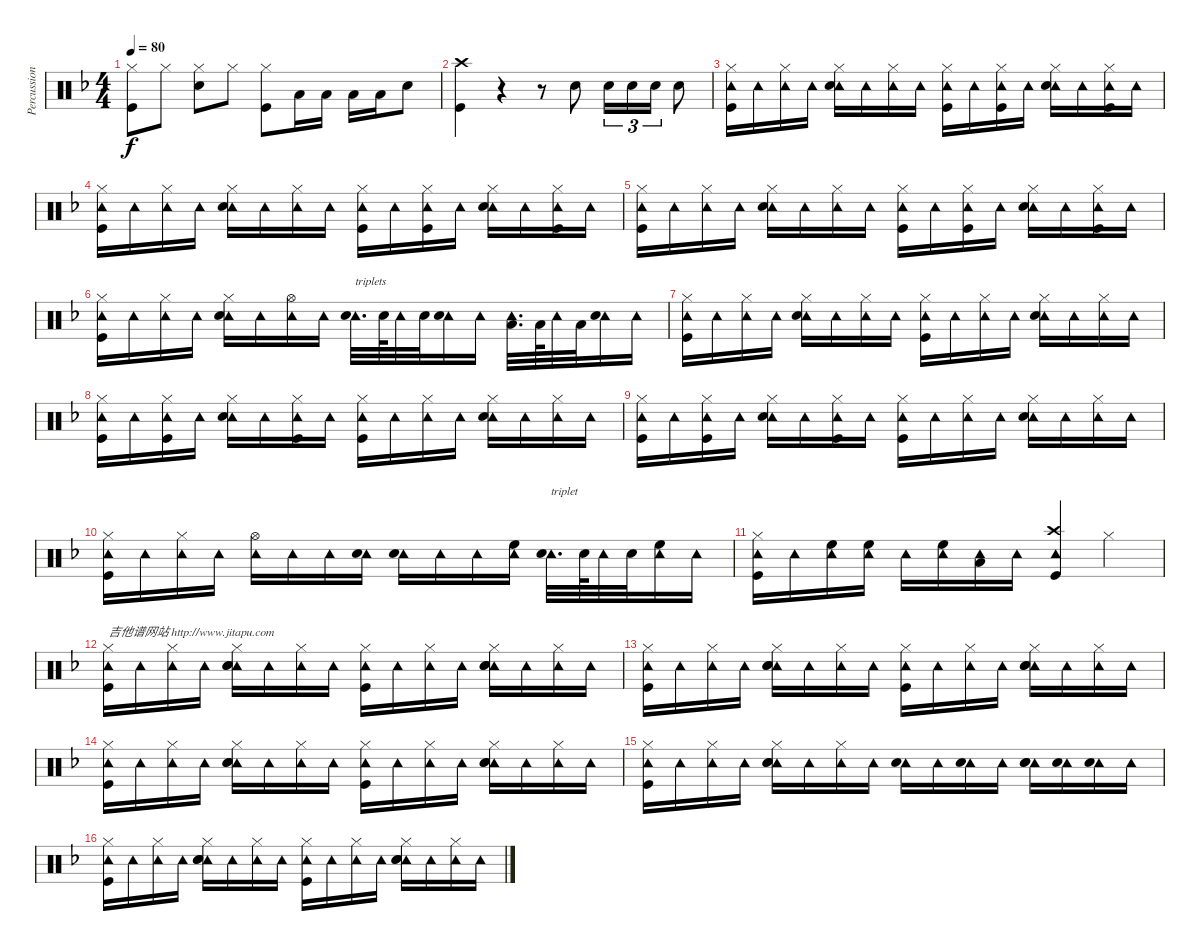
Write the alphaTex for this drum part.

\track ("Percussion" "Percussion") {instrument percussion}
\staff {score}
\articulation defaults
\ts (4 4)
\tempo 80
\clef neutral
\ks f
("Hi-Hat (closed)" "Kick (hit)").8{dy f} "Hi-Hat (closed)".8 ("Hi-Hat (closed)" "Snare (hit) 2").8 "Hi-Hat (closed)".8 ("Hi-Hat (closed)" "Kick (hit)").8 "Low Tom (hit)".16 "Low Tom (hit)".16 "Low Tom (hit)".16 "Low Tom (hit)".16 "Snare (hit) 2".8 |
("Crash high (hit)" "Kick (hit)").4 r.4 r.8 "Snare (hit) 2".8 "Snare (hit) 2".16{tu (3 2)} "Snare (hit) 2".16{tu (3 2)} "Snare (hit) 2".16{tu (3 2)} "Snare (hit) 2".8 |
("Hi-Hat (closed)" "Tambourine (hit)" "Kick (hit)").16 "Tambourine (hit)".16 ("Hi-Hat (closed)" "Tambourine (hit)").16 "Tambourine (hit)".16 ("Hi-Hat (closed)" "Tambourine (hit)" "Snare (hit) 2").16 "Tambourine (hit)".16 ("Hi-Hat (closed)" "Tambourine (hit)").16 "Tambourine (hit)".16 ("Hi-Hat (closed)" "Tambourine (hit)" "Kick (hit)").16 "Tambourine (hit)".16 ("Hi-Hat (closed)" "Tambourine (hit)" "Kick (hit)").16 "Tambourine (hit)".16 ("Hi-Hat (closed)" "Tambourine (hit)" "Snare (hit) 2").16 "Tambourine (hit)".16 ("Hi-Hat (closed)" "Tambourine (hit)" "Kick (hit)").16 "Tambourine (hit)".16 |
("Hi-Hat (closed)" "Tambourine (hit)" "Kick (hit)").16 "Tambourine (hit)".16 ("Hi-Hat (closed)" "Tambourine (hit)").16 "Tambourine (hit)".16 ("Hi-Hat (closed)" "Tambourine (hit)" "Snare (hit) 2").16 "Tambourine (hit)".16 ("Hi-Hat (closed)" "Tambourine (hit)").16 "Tambourine (hit)".16 ("Hi-Hat (closed)" "Tambourine (hit)" "Kick (hit)").16 "Tambourine (hit)".16 ("Hi-Hat (closed)" "Tambourine (hit)" "Kick (hit)").16 "Tambourine (hit)".16 ("Hi-Hat (closed)" "Tambourine (hit)" "Snare (hit) 2").16 "Tambourine (hit)".16 ("Hi-Hat (closed)" "Tambourine (hit)" "Kick (hit)").16 "Tambourine (hit)".16 |
("Hi-Hat (closed)" "Tambourine (hit)" "Kick (hit)").16 "Tambourine (hit)".16 ("Hi-Hat (closed)" "Tambourine (hit)").16 "Tambourine (hit)".16 ("Hi-Hat (closed)" "Tambourine (hit)" "Snare (hit) 2").16 "Tambourine (hit)".16 ("Hi-Hat (closed)" "Tambourine (hit)").16 "Tambourine (hit)".16 ("Hi-Hat (closed)" "Tambourine (hit)" "Kick (hit)").16 "Tambourine (hit)".16 ("Hi-Hat (closed)" "Tambourine (hit)" "Kick (hit)").16 "Tambourine (hit)".16 ("Hi-Hat (closed)" "Tambourine (hit)" "Snare (hit) 2").16 "Tambourine (hit)".16 ("Hi-Hat (closed)" "Tambourine (hit)" "Kick (hit)").16 "Tambourine (hit)".16 |
("Hi-Hat (closed)" "Tambourine (hit)" "Kick (hit)").16 "Tambourine (hit)".16 ("Hi-Hat (closed)" "Tambourine (hit)").16 "Tambourine (hit)".16 ("Hi-Hat (closed)" "Tambourine (hit)" "Snare (hit) 2").16 "Tambourine (hit)".16 ("Hi-Hat (open)" "Tambourine (hit)").16 "Tambourine (hit)".16 ("Tambourine (hit)" "Snare (hit) 2").32{d txt "triplets"} "Snare (hit) 2".64 "Tambourine (hit)".32 "Snare (hit) 2".32 ("Tambourine (hit)" "Snare (hit) 2").16 "Tambourine (hit)".16 ("Tambourine (hit)" "Low Tom (hit)").32{d} "Low Tom (hit)".64 "Tambourine (hit)".32 "Low Tom (hit)".32 ("Tambourine (hit)" "Snare (hit) 2").16 "Tambourine (hit)".16 |
("Hi-Hat (closed)" "Tambourine (hit)" "Kick (hit)").16 "Tambourine (hit)".16 ("Hi-Hat (closed)" "Tambourine (hit)").16 "Tambourine (hit)".16 ("Hi-Hat (closed)" "Tambourine (hit)" "Snare (hit) 2").16 "Tambourine (hit)".16 ("Hi-Hat (closed)" "Tambourine (hit)").16 "Tambourine (hit)".16 ("Hi-Hat (closed)" "Tambourine (hit)" "Kick (hit)").16 "Tambourine (hit)".16 ("Hi-Hat (closed)" "Tambourine (hit)").16 "Tambourine (hit)".16 ("Hi-Hat (closed)" "Tambourine (hit)" "Snare (hit) 2").16 "Tambourine (hit)".16 ("Hi-Hat (closed)" "Tambourine (hit)").16 "Tambourine (hit)".16 |
("Hi-Hat (closed)" "Tambourine (hit)" "Kick (hit)").16 "Tambourine (hit)".16 ("Hi-Hat (closed)" "Tambourine (hit)" "Kick (hit)").16 "Tambourine (hit)".16 ("Hi-Hat (closed)" "Tambourine (hit)" "Snare (hit) 2").16 "Tambourine (hit)".16 ("Hi-Hat (closed)" "Tambourine (hit)" "Kick (hit)").16 "Tambourine (hit)".16 ("Hi-Hat (closed)" "Tambourine (hit)" "Kick (hit)").16 "Tambourine (hit)".16 ("Hi-Hat (closed)" "Tambourine (hit)").16 "Tambourine (hit)".16 ("Hi-Hat (closed)" "Tambourine (hit)" "Snare (hit) 2").16 "Tambourine (hit)".16 ("Hi-Hat (closed)" "Tambourine (hit)").16 "Tambourine (hit)".16 |
("Hi-Hat (closed)" "Tambourine (hit)" "Kick (hit)").16 "Tambourine (hit)".16 ("Hi-Hat (closed)" "Tambourine (hit)" "Kick (hit)").16 "Tambourine (hit)".16 ("Hi-Hat (closed)" "Tambourine (hit)" "Snare (hit) 2").16 "Tambourine (hit)".16 ("Hi-Hat (closed)" "Tambourine (hit)" "Kick (hit)").16 "Tambourine (hit)".16 ("Hi-Hat (closed)" "Tambourine (hit)" "Kick (hit)").16 "Tambourine (hit)".16 ("Hi-Hat (closed)" "Tambourine (hit)").16 "Tambourine (hit)".16 ("Hi-Hat (closed)" "Tambourine (hit)" "Snare (hit) 2").16 "Tambourine (hit)".16 ("Hi-Hat (closed)" "Tambourine (hit)").16 "Tambourine (hit)".16 |
("Hi-Hat (closed)" "Tambourine (hit)" "Kick (hit)").16 "Tambourine (hit)".16 ("Hi-Hat (closed)" "Tambourine (hit)").16 "Tambourine (hit)".16 ("Hi-Hat (open)" "Tambourine (hit)").16 "Tambourine (hit)".16 "Tambourine (hit)".16 ("Tambourine (hit)" "Snare (hit) 2").16 ("Tambourine (hit)" "Snare (hit) 2").16 "Tambourine (hit)".16 "Tambourine (hit)".16 ("Tambourine (hit)" "High Floor Tom (hit)").16 ("Tambourine (hit)" "Snare (hit) 2").32{d txt "triplet"} "Snare (hit) 2".64 "Tambourine (hit)".32 "Snare (hit) 2".32 ("Tambourine (hit)" "High Floor Tom (hit)").16 "Tambourine (hit)".16 |
("Hi-Hat (closed)" "Tambourine (hit)" "Kick (hit)").16 "Tambourine (hit)".16 ("Tambourine (hit)" "High Floor Tom (hit)").16 ("Tambourine (hit)" "High Floor Tom (hit)").16 "Tambourine (hit)".16 ("Tambourine (hit)" "High Floor Tom (hit)").16 ("Tambourine (hit)" "Low Tom (hit)").16 "Tambourine (hit)".16 ("Crash high (hit)" "Tambourine (hit)" "Kick (hit)").4 "Hi-Hat (closed)".4 |
("Hi-Hat (closed)" "Tambourine (hit)" "Kick (hit)").16{txt "吉他谱网站 http://www.jitapu.com"} "Tambourine (hit)".16 ("Hi-Hat (closed)" "Tambourine (hit)").16 "Tambourine (hit)".16 ("Hi-Hat (closed)" "Tambourine (hit)" "Snare (hit) 2" "Hand Clap (hit)").16 "Tambourine (hit)".16 ("Hi-Hat (closed)" "Tambourine (hit)").16 "Tambourine (hit)".16 ("Hi-Hat (closed)" "Tambourine (hit)" "Kick (hit)").16 "Tambourine (hit)".16 ("Hi-Hat (closed)" "Tambourine (hit)").16 "Tambourine (hit)".16 ("Hi-Hat (closed)" "Tambourine (hit)" "Snare (hit) 2" "Hand Clap (hit)").16 "Tambourine (hit)".16 ("Hi-Hat (closed)" "Tambourine (hit)").16 "Tambourine (hit)".16 |
("Hi-Hat (closed)" "Tambourine (hit)" "Kick (hit)").16 "Tambourine (hit)".16 ("Hi-Hat (closed)" "Tambourine (hit)").16 "Tambourine (hit)".16 ("Hi-Hat (closed)" "Tambourine (hit)" "Snare (hit) 2" "Hand Clap (hit)").16 "Tambourine (hit)".16 ("Hi-Hat (closed)" "Tambourine (hit)").16 "Tambourine (hit)".16 ("Hi-Hat (closed)" "Tambourine (hit)" "Kick (hit)").16 "Tambourine (hit)".16 ("Hi-Hat (closed)" "Tambourine (hit)").16 "Tambourine (hit)".16 ("Hi-Hat (closed)" "Tambourine (hit)" "Snare (hit) 2" "Hand Clap (hit)").16 "Tambourine (hit)".16 ("Hi-Hat (closed)" "Tambourine (hit)").16 "Tambourine (hit)".16 |
("Hi-Hat (closed)" "Tambourine (hit)" "Kick (hit)").16 "Tambourine (hit)".16 ("Hi-Hat (closed)" "Tambourine (hit)").16 "Tambourine (hit)".16 ("Hi-Hat (closed)" "Tambourine (hit)" "Snare (hit) 2" "Hand Clap (hit)").16 "Tambourine (hit)".16 ("Hi-Hat (closed)" "Tambourine (hit)").16 "Tambourine (hit)".16 ("Hi-Hat (closed)" "Tambourine (hit)" "Kick (hit)").16 "Tambourine (hit)".16 ("Hi-Hat (closed)" "Tambourine (hit)").16 "Tambourine (hit)".16 ("Hi-Hat (closed)" "Tambourine (hit)" "Snare (hit) 2" "Hand Clap (hit)").16 "Tambourine (hit)".16 ("Hi-Hat (closed)" "Tambourine (hit)").16 "Tambourine (hit)".16 |
("Hi-Hat (closed)" "Tambourine (hit)" "Kick (hit)").16 "Tambourine (hit)".16 ("Hi-Hat (closed)" "Tambourine (hit)").16 "Tambourine (hit)".16 ("Hi-Hat (closed)" "Tambourine (hit)" "Snare (hit) 2" "Hand Clap (hit)").16 "Tambourine (hit)".16 ("Hi-Hat (closed)" "Tambourine (hit)").16 "Tambourine (hit)".16 ("Tambourine (hit)" "Snare (hit) 2").16 "Tambourine (hit)".16 ("Tambourine (hit)" "Snare (hit) 2").16 "Tambourine (hit)".16 ("Tambourine (hit)" "Snare (hit) 2" "Hand Clap (hit)").16 ("Tambourine (hit)" "Snare (hit) 2").16 ("Tambourine (hit)" "Snare (hit) 2").16 "Tambourine (hit)".16 |
("Hi-Hat (closed)" "Tambourine (hit)" "Kick (hit)").16 "Tambourine (hit)".16 ("Hi-Hat (closed)" "Tambourine (hit)").16 "Tambourine (hit)".16 ("Hi-Hat (closed)" "Tambourine (hit)" "Snare (hit) 2" "Hand Clap (hit)").16 "Tambourine (hit)".16 ("Hi-Hat (closed)" "Tambourine (hit)").16 "Tambourine (hit)".16 ("Hi-Hat (closed)" "Tambourine (hit)" "Kick (hit)").16 "Tambourine (hit)".16 ("Hi-Hat (closed)" "Tambourine (hit)").16 "Tambourine (hit)".16 ("Hi-Hat (closed)" "Tambourine (hit)" "Snare (hit) 2" "Hand Clap (hit)").16 "Tambourine (hit)".16 ("Hi-Hat (closed)" "Tambourine (hit)").16 "Tambourine (hit)".16
